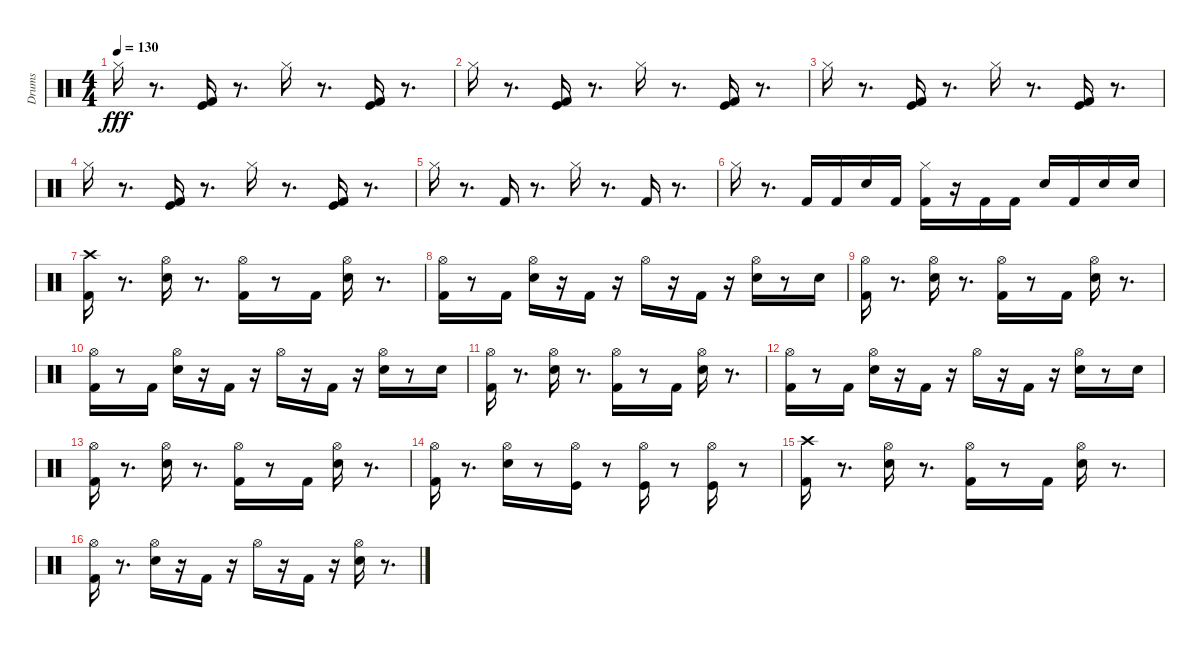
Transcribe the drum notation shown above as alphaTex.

\track ("Drums" "Drums") {instrument percussion}
\staff {score}
\articulation defaults
\ts (4 4)
\tempo 130
\clef neutral
\ks c "Hi-Hat (closed)".16{dy fff}
r.8{d} ("Kick (hit) 2" "Kick (hit)").16 r.8{d} "Hi-Hat (closed)".16 r.8{d} ("Kick (hit) 2" "Kick (hit)").16 r.8{d} |
"Hi-Hat (closed)".16 r.8{d} ("Kick (hit) 2" "Kick (hit)").16 r.8{d} "Hi-Hat (closed)".16 r.8{d} ("Kick (hit) 2" "Kick (hit)").16 r.8{d} |
"Hi-Hat (closed)".16 r.8{d} ("Kick (hit) 2" "Kick (hit)").16 r.8{d} "Hi-Hat (closed)".16 r.8{d} ("Kick (hit) 2" "Kick (hit)").16 r.8{d} |
"Hi-Hat (closed)".16 r.8{d} ("Kick (hit) 2" "Kick (hit)").16 r.8{d} "Hi-Hat (closed)".16 r.8{d} ("Kick (hit) 2" "Kick (hit)").16 r.8{d} |
"Hi-Hat (closed)".16 r.8{d} "Kick (hit) 2".16 r.8{d} "Hi-Hat (closed)".16 r.8{d} "Kick (hit) 2".16 r.8{d} |
"Hi-Hat (closed)".16 r.8{d} "Kick (hit) 2".16 "Kick (hit) 2".16 "Snare (hit) 2".16 "Kick (hit) 2".16 ("Hi-Hat (closed)" "Kick (hit) 2").16 r.16 "Kick (hit) 2".16 "Kick (hit) 2".16 "Snare (hit) 2".16 "Kick (hit) 2".16 "Snare (hit) 2".16 "Snare (hit) 2".16 |
("Crash high (hit)" "Kick (hit) 2").16 r.8{d} ("Hi-Hat (open)" "Snare (hit) 2").16 r.8{d} ("Hi-Hat (open)" "Kick (hit) 2").16 r.8 "Kick (hit) 2".16 ("Hi-Hat (open)" "Snare (hit) 2").16 r.8{d} |
("Hi-Hat (open)" "Kick (hit) 2").16 r.8 "Kick (hit) 2".16 ("Hi-Hat (open)" "Snare (hit) 2").16 r.16 "Kick (hit) 2".16 r.16 "Hi-Hat (open)".16 r.16 "Kick (hit) 2".16 r.16 ("Hi-Hat (open)" "Snare (hit) 2").16 r.8 "Snare (hit) 2".16 |
("Hi-Hat (open)" "Kick (hit) 2").16 r.8{d} ("Hi-Hat (open)" "Snare (hit) 2").16 r.8{d} ("Hi-Hat (open)" "Kick (hit) 2").16 r.8 "Kick (hit) 2".16 ("Hi-Hat (open)" "Snare (hit) 2").16 r.8{d} |
("Hi-Hat (open)" "Kick (hit) 2").16 r.8 "Kick (hit) 2".16 ("Hi-Hat (open)" "Snare (hit) 2").16 r.16 "Kick (hit) 2".16 r.16 "Hi-Hat (open)".16 r.16 "Kick (hit) 2".16 r.16 ("Hi-Hat (open)" "Snare (hit) 2").16 r.8 "Snare (hit) 2".16 |
("Hi-Hat (open)" "Kick (hit) 2").16 r.8{d} ("Hi-Hat (open)" "Snare (hit) 2").16 r.8{d} ("Hi-Hat (open)" "Kick (hit) 2").16 r.8 "Kick (hit) 2".16 ("Hi-Hat (open)" "Snare (hit) 2").16 r.8{d} |
("Hi-Hat (open)" "Kick (hit) 2").16 r.8 "Kick (hit) 2".16 ("Hi-Hat (open)" "Snare (hit) 2").16 r.16 "Kick (hit) 2".16 r.16 "Hi-Hat (open)".16 r.16 "Kick (hit) 2".16 r.16 ("Hi-Hat (open)" "Snare (hit) 2").16 r.8 "Snare (hit) 2".16 |
("Hi-Hat (open)" "Kick (hit) 2").16 r.8{d} ("Hi-Hat (open)" "Snare (hit) 2").16 r.8{d} ("Hi-Hat (open)" "Kick (hit) 2").16 r.8 "Kick (hit) 2".16 ("Hi-Hat (open)" "Snare (hit) 2").16 r.8{d} |
("Hi-Hat (open)" "Kick (hit) 2").16 r.8{d} ("Hi-Hat (open)" "Snare (hit) 2").16 r.8 ("Hi-Hat (open)" "Kick (hit)").16 r.8 ("Hi-Hat (open)" "Kick (hit)").16 r.8 ("Hi-Hat (open)" "Kick (hit)").16 r.8 |
("Crash high (hit)" "Kick (hit) 2").16 r.8{d} ("Hi-Hat (open)" "Snare (hit) 2").16 r.8{d} ("Hi-Hat (open)" "Kick (hit) 2").16 r.8 "Kick (hit) 2".16 ("Hi-Hat (open)" "Snare (hit) 2").16 r.8{d} |
("Hi-Hat (open)" "Kick (hit) 2").16 r.8{d} ("Hi-Hat (open)" "Snare (hit) 2").16 r.16 "Kick (hit) 2".16 r.16 "Hi-Hat (open)".16 r.16 "Kick (hit) 2".16 r.16 ("Hi-Hat (open)" "Snare (hit) 2").16 r.8{d}
